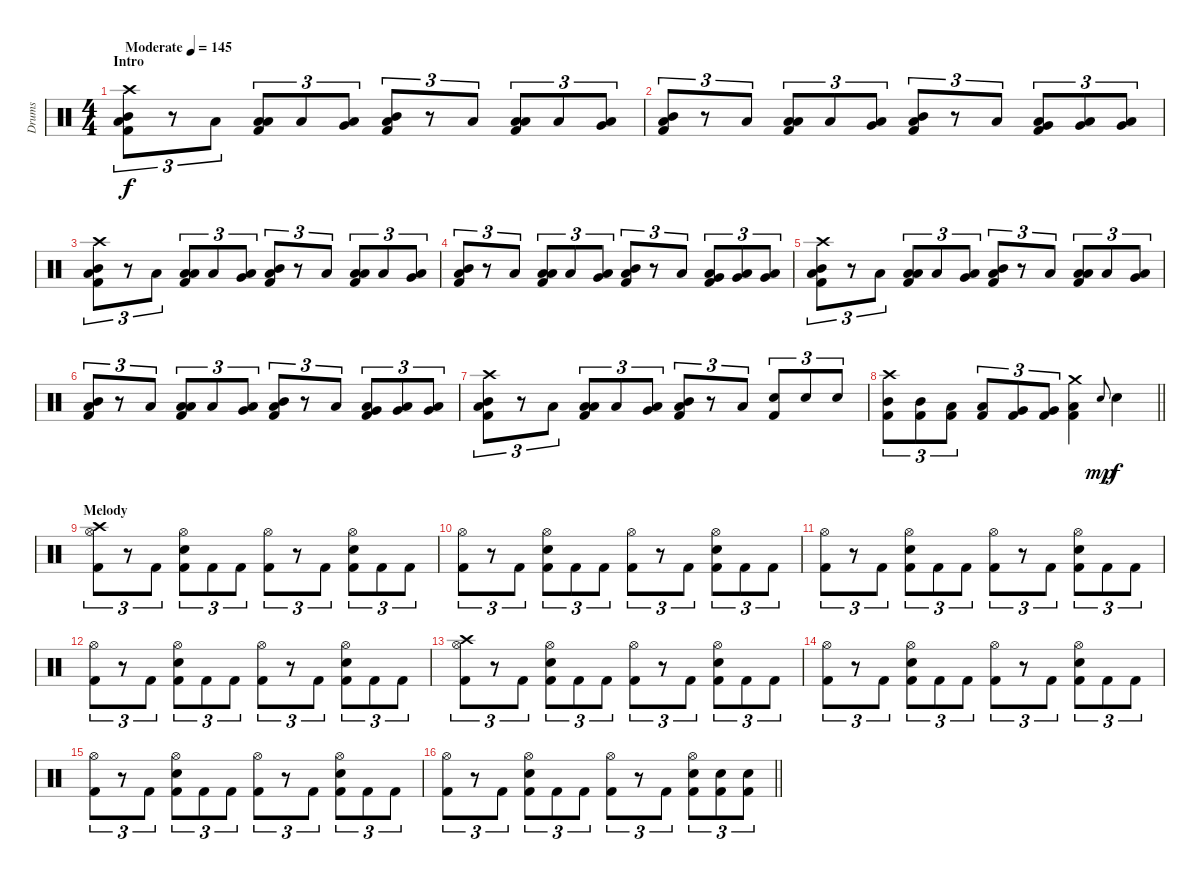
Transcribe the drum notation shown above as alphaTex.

\track ("Drums" "Drums") {instrument percussion}
\staff {score}
\articulation defaults
\ts (4 4)
\section ("" "Intro")
\tempo (145 "Moderate")
\clef neutral
\ks c
("Crash high (hit)" "Mid Tom (hit)" "Low Floor Tom (hit)" "Kick (hit) 2").8{tu (3 2) dy f} r.8{tu (3 2)} "Low Floor Tom (hit)".8{tu (3 2)} ("Low Tom (hit)" "Low Floor Tom (hit)" "Kick (hit) 2").8{tu (3 2)} "Low Floor Tom (hit)".8{tu (3 2)} ("Very Low Tom (hit)" "Low Floor Tom (hit)").8{tu (3 2)} ("Mid Tom (hit)" "Low Floor Tom (hit)" "Kick (hit) 2").8{tu (3 2)} r.8{tu (3 2)} "Low Floor Tom (hit)".8{tu (3 2)} ("Low Tom (hit)" "Low Floor Tom (hit)" "Kick (hit) 2").8{tu (3 2)} "Low Floor Tom (hit)".8{tu (3 2)} ("Very Low Tom (hit)" "Low Floor Tom (hit)").8{tu (3 2)} |
("Mid Tom (hit)" "Low Floor Tom (hit)" "Kick (hit) 2").8{tu (3 2)} r.8{tu (3 2)} "Low Floor Tom (hit)".8{tu (3 2)} ("Low Tom (hit)" "Low Floor Tom (hit)" "Kick (hit) 2").8{tu (3 2)} "Low Floor Tom (hit)".8{tu (3 2)} ("Very Low Tom (hit)" "Low Floor Tom (hit)").8{tu (3 2)} ("Mid Tom (hit)" "Low Floor Tom (hit)" "Kick (hit) 2").8{tu (3 2)} r.8{tu (3 2)} "Low Floor Tom (hit)".8{tu (3 2)} ("Very Low Tom (hit)" "Low Floor Tom (hit)" "Kick (hit) 2").8{tu (3 2)} ("Very Low Tom (hit)" "Low Floor Tom (hit)").8{tu (3 2)} ("Very Low Tom (hit)" "Low Floor Tom (hit)").8{tu (3 2)} |
("Crash high (hit)" "Mid Tom (hit)" "Low Floor Tom (hit)" "Kick (hit) 2").8{tu (3 2)} r.8{tu (3 2)} "Low Floor Tom (hit)".8{tu (3 2)} ("Low Tom (hit)" "Low Floor Tom (hit)" "Kick (hit) 2").8{tu (3 2)} "Low Floor Tom (hit)".8{tu (3 2)} ("Very Low Tom (hit)" "Low Floor Tom (hit)").8{tu (3 2)} ("Mid Tom (hit)" "Low Floor Tom (hit)" "Kick (hit) 2").8{tu (3 2)} r.8{tu (3 2)} "Low Floor Tom (hit)".8{tu (3 2)} ("Low Tom (hit)" "Low Floor Tom (hit)" "Kick (hit) 2").8{tu (3 2)} "Low Floor Tom (hit)".8{tu (3 2)} ("Very Low Tom (hit)" "Low Floor Tom (hit)").8{tu (3 2)} |
("Mid Tom (hit)" "Low Floor Tom (hit)" "Kick (hit) 2").8{tu (3 2)} r.8{tu (3 2)} "Low Floor Tom (hit)".8{tu (3 2)} ("Low Tom (hit)" "Low Floor Tom (hit)" "Kick (hit) 2").8{tu (3 2)} "Low Floor Tom (hit)".8{tu (3 2)} ("Very Low Tom (hit)" "Low Floor Tom (hit)").8{tu (3 2)} ("Mid Tom (hit)" "Low Floor Tom (hit)" "Kick (hit) 2").8{tu (3 2)} r.8{tu (3 2)} "Low Floor Tom (hit)".8{tu (3 2)} ("Very Low Tom (hit)" "Low Floor Tom (hit)" "Kick (hit) 2").8{tu (3 2)} ("Very Low Tom (hit)" "Low Floor Tom (hit)").8{tu (3 2)} ("Very Low Tom (hit)" "Low Floor Tom (hit)").8{tu (3 2)} |
("Crash high (hit)" "Mid Tom (hit)" "Low Floor Tom (hit)" "Kick (hit) 2").8{tu (3 2)} r.8{tu (3 2)} "Low Floor Tom (hit)".8{tu (3 2)} ("Low Tom (hit)" "Low Floor Tom (hit)" "Kick (hit) 2").8{tu (3 2)} "Low Floor Tom (hit)".8{tu (3 2)} ("Very Low Tom (hit)" "Low Floor Tom (hit)").8{tu (3 2)} ("Mid Tom (hit)" "Low Floor Tom (hit)" "Kick (hit) 2").8{tu (3 2)} r.8{tu (3 2)} "Low Floor Tom (hit)".8{tu (3 2)} ("Low Tom (hit)" "Low Floor Tom (hit)" "Kick (hit) 2").8{tu (3 2)} "Low Floor Tom (hit)".8{tu (3 2)} ("Very Low Tom (hit)" "Low Floor Tom (hit)").8{tu (3 2)} |
("Mid Tom (hit)" "Low Floor Tom (hit)" "Kick (hit) 2").8{tu (3 2)} r.8{tu (3 2)} "Low Floor Tom (hit)".8{tu (3 2)} ("Low Tom (hit)" "Low Floor Tom (hit)" "Kick (hit) 2").8{tu (3 2)} "Low Floor Tom (hit)".8{tu (3 2)} ("Very Low Tom (hit)" "Low Floor Tom (hit)").8{tu (3 2)} ("Mid Tom (hit)" "Low Floor Tom (hit)" "Kick (hit) 2").8{tu (3 2)} r.8{tu (3 2)} "Low Floor Tom (hit)".8{tu (3 2)} ("Very Low Tom (hit)" "Low Floor Tom (hit)" "Kick (hit) 2").8{tu (3 2)} ("Very Low Tom (hit)" "Low Floor Tom (hit)").8{tu (3 2)} ("Very Low Tom (hit)" "Low Floor Tom (hit)").8{tu (3 2)} |
("Crash high (hit)" "Mid Tom (hit)" "Low Floor Tom (hit)" "Kick (hit) 2").8{tu (3 2)} r.8{tu (3 2)} "Low Floor Tom (hit)".8{tu (3 2)} ("Low Tom (hit)" "Low Floor Tom (hit)" "Kick (hit) 2").8{tu (3 2)} "Low Floor Tom (hit)".8{tu (3 2)} ("Very Low Tom (hit)" "Low Floor Tom (hit)").8{tu (3 2)} ("Mid Tom (hit)" "Low Floor Tom (hit)" "Kick (hit) 2").8{tu (3 2)} r.8{tu (3 2)} "Low Floor Tom (hit)".8{tu (3 2)} ("Snare (hit) 2" "Kick (hit) 2").8{tu (3 2)} "Snare (hit) 2".8{tu (3 2)} "Snare (hit) 2".8{tu (3 2)} |
\barLineRight lightlight
("Crash high (hit)" "Mid Tom (hit)" "Kick (hit) 2").8{tu (3 2)} ("Mid Tom (hit)" "Kick (hit) 2").8{tu (3 2)} ("Low Tom (hit)" "Kick (hit) 2").8{tu (3 2)} ("Low Tom (hit)" "Kick (hit) 2").8{tu (3 2)} ("Very Low Tom (hit)" "Kick (hit) 2").8{tu (3 2)} ("Very Low Tom (hit)" "Kick (hit) 2").8{tu (3 2)} ("Crash medium (hit)" "Low Floor Tom (hit)" "Kick (hit) 2").4 "Snare (hit) 2".8{gr onbeat dy mp} "Snare (hit) 2".4{dy f} |
\section ("" "Melody")
("Crash high (hit)" "Hi-Hat (open)" "Kick (hit) 2").8{tu (3 2)} r.8{tu (3 2)} "Kick (hit) 2".8{tu (3 2)} ("Hi-Hat (open)" "Snare (hit) 2" "Kick (hit) 2").8{tu (3 2)} "Kick (hit) 2".8{tu (3 2)} "Kick (hit) 2".8{tu (3 2)} ("Hi-Hat (open)" "Kick (hit) 2").8{tu (3 2)} r.8{tu (3 2)} "Kick (hit) 2".8{tu (3 2)} ("Hi-Hat (open)" "Snare (hit) 2" "Kick (hit) 2").8{tu (3 2)} "Kick (hit) 2".8{tu (3 2)} "Kick (hit) 2".8{tu (3 2)} |
("Hi-Hat (open)" "Kick (hit) 2").8{tu (3 2)} r.8{tu (3 2)} "Kick (hit) 2".8{tu (3 2)} ("Hi-Hat (open)" "Snare (hit) 2" "Kick (hit) 2").8{tu (3 2)} "Kick (hit) 2".8{tu (3 2)} "Kick (hit) 2".8{tu (3 2)} ("Hi-Hat (open)" "Kick (hit) 2").8{tu (3 2)} r.8{tu (3 2)} "Kick (hit) 2".8{tu (3 2)} ("Hi-Hat (open)" "Snare (hit) 2" "Kick (hit) 2").8{tu (3 2)} "Kick (hit) 2".8{tu (3 2)} "Kick (hit) 2".8{tu (3 2)} |
("Hi-Hat (open)" "Kick (hit) 2").8{tu (3 2)} r.8{tu (3 2)} "Kick (hit) 2".8{tu (3 2)} ("Hi-Hat (open)" "Snare (hit) 2" "Kick (hit) 2").8{tu (3 2)} "Kick (hit) 2".8{tu (3 2)} "Kick (hit) 2".8{tu (3 2)} ("Hi-Hat (open)" "Kick (hit) 2").8{tu (3 2)} r.8{tu (3 2)} "Kick (hit) 2".8{tu (3 2)} ("Hi-Hat (open)" "Snare (hit) 2" "Kick (hit) 2").8{tu (3 2)} "Kick (hit) 2".8{tu (3 2)} "Kick (hit) 2".8{tu (3 2)} |
("Hi-Hat (open)" "Kick (hit) 2").8{tu (3 2)} r.8{tu (3 2)} "Kick (hit) 2".8{tu (3 2)} ("Hi-Hat (open)" "Snare (hit) 2" "Kick (hit) 2").8{tu (3 2)} "Kick (hit) 2".8{tu (3 2)} "Kick (hit) 2".8{tu (3 2)} ("Hi-Hat (open)" "Kick (hit) 2").8{tu (3 2)} r.8{tu (3 2)} "Kick (hit) 2".8{tu (3 2)} ("Hi-Hat (open)" "Snare (hit) 2" "Kick (hit) 2").8{tu (3 2)} "Kick (hit) 2".8{tu (3 2)} "Kick (hit) 2".8{tu (3 2)} |
("Crash high (hit)" "Hi-Hat (open)" "Kick (hit) 2").8{tu (3 2)} r.8{tu (3 2)} "Kick (hit) 2".8{tu (3 2)} ("Hi-Hat (open)" "Snare (hit) 2" "Kick (hit) 2").8{tu (3 2)} "Kick (hit) 2".8{tu (3 2)} "Kick (hit) 2".8{tu (3 2)} ("Hi-Hat (open)" "Kick (hit) 2").8{tu (3 2)} r.8{tu (3 2)} "Kick (hit) 2".8{tu (3 2)} ("Hi-Hat (open)" "Snare (hit) 2" "Kick (hit) 2").8{tu (3 2)} "Kick (hit) 2".8{tu (3 2)} "Kick (hit) 2".8{tu (3 2)} |
("Hi-Hat (open)" "Kick (hit) 2").8{tu (3 2)} r.8{tu (3 2)} "Kick (hit) 2".8{tu (3 2)} ("Hi-Hat (open)" "Snare (hit) 2" "Kick (hit) 2").8{tu (3 2)} "Kick (hit) 2".8{tu (3 2)} "Kick (hit) 2".8{tu (3 2)} ("Hi-Hat (open)" "Kick (hit) 2").8{tu (3 2)} r.8{tu (3 2)} "Kick (hit) 2".8{tu (3 2)} ("Hi-Hat (open)" "Snare (hit) 2" "Kick (hit) 2").8{tu (3 2)} "Kick (hit) 2".8{tu (3 2)} "Kick (hit) 2".8{tu (3 2)} |
("Hi-Hat (open)" "Kick (hit) 2").8{tu (3 2)} r.8{tu (3 2)} "Kick (hit) 2".8{tu (3 2)} ("Hi-Hat (open)" "Snare (hit) 2" "Kick (hit) 2").8{tu (3 2)} "Kick (hit) 2".8{tu (3 2)} "Kick (hit) 2".8{tu (3 2)} ("Hi-Hat (open)" "Kick (hit) 2").8{tu (3 2)} r.8{tu (3 2)} "Kick (hit) 2".8{tu (3 2)} ("Hi-Hat (open)" "Snare (hit) 2" "Kick (hit) 2").8{tu (3 2)} "Kick (hit) 2".8{tu (3 2)} "Kick (hit) 2".8{tu (3 2)} |
\barLineRight lightlight
("Hi-Hat (open)" "Kick (hit) 2").8{tu (3 2)} r.8{tu (3 2)} "Kick (hit) 2".8{tu (3 2)} ("Hi-Hat (open)" "Snare (hit) 2" "Kick (hit) 2").8{tu (3 2)} "Kick (hit) 2".8{tu (3 2)} "Kick (hit) 2".8{tu (3 2)} ("Hi-Hat (open)" "Kick (hit) 2").8{tu (3 2)} r.8{tu (3 2)} "Kick (hit) 2".8{tu (3 2)} ("Hi-Hat (open)" "Snare (hit) 2" "Kick (hit) 2").8{tu (3 2)} ("Snare (hit) 2" "Kick (hit) 2").8{tu (3 2)} ("Snare (hit) 2" "Kick (hit) 2").8{tu (3 2)}
